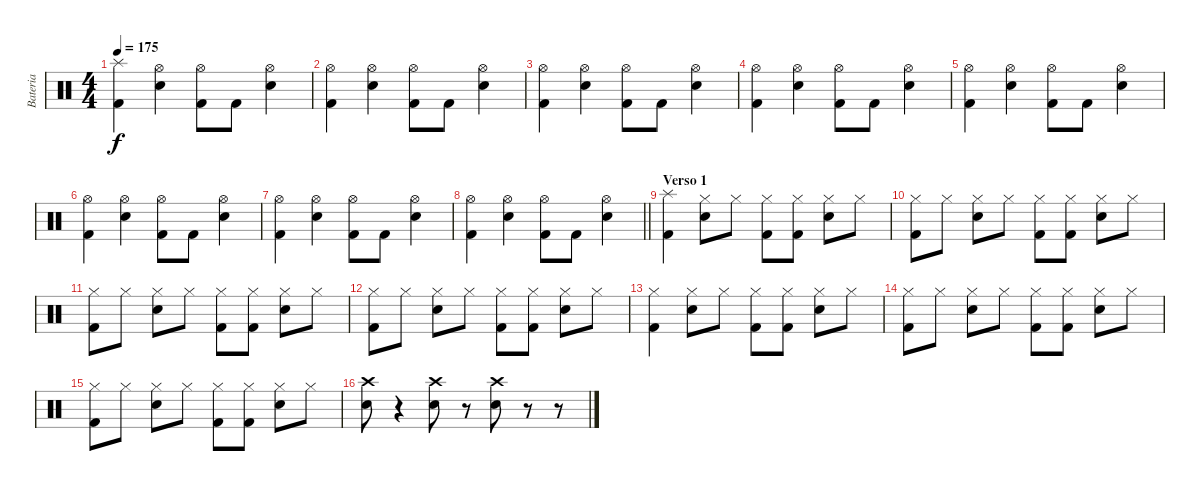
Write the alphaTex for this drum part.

\track ("Bateria" "Bateria") {instrument percussion}
\staff {score}
\articulation defaults
\ts (4 4)
\tempo 175
\clef neutral
\ks c
("Splash (hit)" "Kick (hit) 2").4{dy f} ("Hi-Hat (open)" "Electric Snare (hit)").4 ("Hi-Hat (open)" "Kick (hit) 2").8 "Kick (hit) 2".8 ("Hi-Hat (open)" "Electric Snare (hit)").4 |
("Hi-Hat (open)" "Kick (hit) 2").4 ("Hi-Hat (open)" "Electric Snare (hit)").4 ("Hi-Hat (open)" "Kick (hit) 2").8 "Kick (hit) 2".8 ("Hi-Hat (open)" "Electric Snare (hit)").4 |
("Hi-Hat (open)" "Kick (hit) 2").4 ("Hi-Hat (open)" "Electric Snare (hit)").4 ("Hi-Hat (open)" "Kick (hit) 2").8 "Kick (hit) 2".8 ("Hi-Hat (open)" "Electric Snare (hit)").4 |
("Hi-Hat (open)" "Kick (hit) 2").4 ("Hi-Hat (open)" "Electric Snare (hit)").4 ("Hi-Hat (open)" "Kick (hit) 2").8 "Kick (hit) 2".8 ("Hi-Hat (open)" "Electric Snare (hit)").4 |
("Hi-Hat (open)" "Kick (hit) 2").4 ("Hi-Hat (open)" "Electric Snare (hit)").4 ("Hi-Hat (open)" "Kick (hit) 2").8 "Kick (hit) 2".8 ("Hi-Hat (open)" "Electric Snare (hit)").4 |
("Hi-Hat (open)" "Kick (hit) 2").4 ("Hi-Hat (open)" "Electric Snare (hit)").4 ("Hi-Hat (open)" "Kick (hit) 2").8 "Kick (hit) 2".8 ("Hi-Hat (open)" "Electric Snare (hit)").4 |
("Hi-Hat (open)" "Kick (hit) 2").4 ("Hi-Hat (open)" "Electric Snare (hit)").4 ("Hi-Hat (open)" "Kick (hit) 2").8 "Kick (hit) 2".8 ("Hi-Hat (open)" "Electric Snare (hit)").4 |
\barLineRight lightlight
("Hi-Hat (open)" "Kick (hit) 2").4 ("Hi-Hat (open)" "Electric Snare (hit)").4 ("Hi-Hat (open)" "Kick (hit) 2").8 "Kick (hit) 2".8 ("Hi-Hat (open)" "Electric Snare (hit)").4 |
\section ("" "Verso 1")
("Splash (hit)" "Kick (hit) 2").4 ("Hi-Hat (closed)" "Electric Snare (hit)").8 "Hi-Hat (closed)".8 ("Hi-Hat (closed)" "Kick (hit) 2").8 ("Hi-Hat (closed)" "Kick (hit) 2").8 ("Hi-Hat (closed)" "Electric Snare (hit)").8 "Hi-Hat (closed)".8 |
("Hi-Hat (closed)" "Kick (hit) 2").8 "Hi-Hat (closed)".8 ("Hi-Hat (closed)" "Electric Snare (hit)").8 "Hi-Hat (closed)".8 ("Hi-Hat (closed)" "Kick (hit) 2").8 ("Hi-Hat (closed)" "Kick (hit) 2").8 ("Hi-Hat (closed)" "Electric Snare (hit)").8 "Hi-Hat (closed)".8 |
("Hi-Hat (closed)" "Kick (hit) 2").8 "Hi-Hat (closed)".8 ("Hi-Hat (closed)" "Electric Snare (hit)").8 "Hi-Hat (closed)".8 ("Hi-Hat (closed)" "Kick (hit) 2").8 ("Hi-Hat (closed)" "Kick (hit) 2").8 ("Hi-Hat (closed)" "Electric Snare (hit)").8 "Hi-Hat (closed)".8 |
("Hi-Hat (closed)" "Kick (hit) 2").8 "Hi-Hat (closed)".8 ("Hi-Hat (closed)" "Electric Snare (hit)").8 "Hi-Hat (closed)".8 ("Hi-Hat (closed)" "Kick (hit) 2").8 ("Hi-Hat (closed)" "Kick (hit) 2").8 ("Hi-Hat (closed)" "Electric Snare (hit)").8 "Hi-Hat (closed)".8 |
("Hi-Hat (closed)" "Kick (hit) 2").4 ("Hi-Hat (closed)" "Electric Snare (hit)").8 "Hi-Hat (closed)".8 ("Hi-Hat (closed)" "Kick (hit) 2").8 ("Hi-Hat (closed)" "Kick (hit) 2").8 ("Hi-Hat (closed)" "Electric Snare (hit)").8 "Hi-Hat (closed)".8 |
("Hi-Hat (closed)" "Kick (hit) 2").8 "Hi-Hat (closed)".8 ("Hi-Hat (closed)" "Electric Snare (hit)").8 "Hi-Hat (closed)".8 ("Hi-Hat (closed)" "Kick (hit) 2").8 ("Hi-Hat (closed)" "Kick (hit) 2").8 ("Hi-Hat (closed)" "Electric Snare (hit)").8 "Hi-Hat (closed)".8 |
("Hi-Hat (closed)" "Kick (hit) 2").8 "Hi-Hat (closed)".8 ("Hi-Hat (closed)" "Electric Snare (hit)").8 "Hi-Hat (closed)".8 ("Hi-Hat (closed)" "Kick (hit) 2").8 ("Hi-Hat (closed)" "Kick (hit) 2").8 ("Hi-Hat (closed)" "Electric Snare (hit)").8 "Hi-Hat (closed)".8 |
("Crash high (hit)" "Electric Snare (hit)").8 r.4 ("Crash high (hit)" "Electric Snare (hit)").8 r.8 ("Crash high (hit)" "Electric Snare (hit)").8 r.8 r.8
